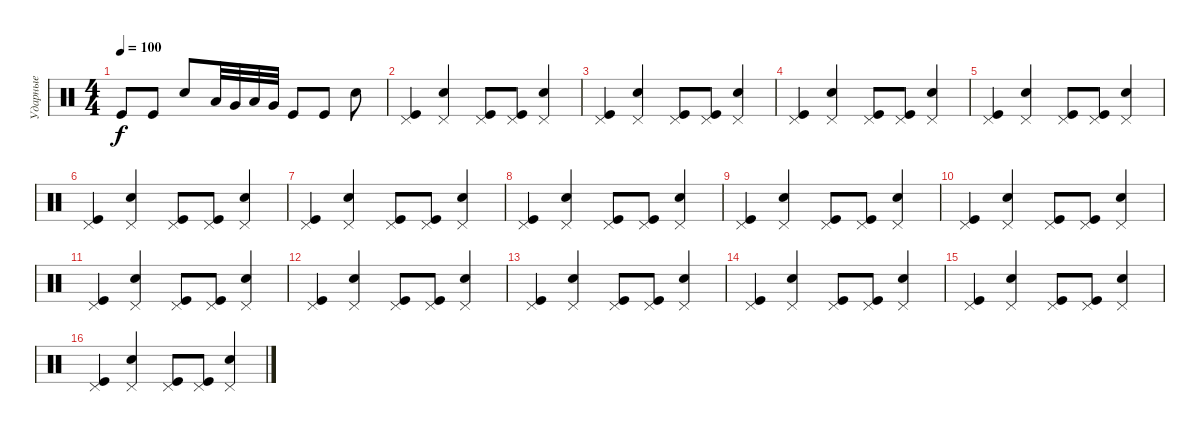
\track ("Ударные" "Ударные") {instrument percussion}
\staff {score}
\articulation defaults
\ts (4 4)
\tempo 100
\clef neutral
\ks c "Kick (hit)".8{dy f} "Kick (hit)".8 "Snare (hit) 2".8 "Low Tom (hit)".32 "Very Low Tom (hit)".32 "Low Tom (hit)".32 "Very Low Tom (hit)".32 "Kick (hit)".8 "Kick (hit)".8 "Snare (hit) 2".8
|
("Pedal Hi-Hat (hit)" "Kick (hit)").4 ("Pedal Hi-Hat (hit)" "Snare (hit) 2").4 ("Pedal Hi-Hat (hit)" "Kick (hit)").8 ("Pedal Hi-Hat (hit)" "Kick (hit)").8 ("Pedal Hi-Hat (hit)" "Snare (hit) 2").4 |
("Pedal Hi-Hat (hit)" "Kick (hit)").4 ("Pedal Hi-Hat (hit)" "Snare (hit) 2").4 ("Pedal Hi-Hat (hit)" "Kick (hit)").8 ("Pedal Hi-Hat (hit)" "Kick (hit)").8 ("Pedal Hi-Hat (hit)" "Snare (hit) 2").4 |
("Pedal Hi-Hat (hit)" "Kick (hit)").4 ("Pedal Hi-Hat (hit)" "Snare (hit) 2").4 ("Pedal Hi-Hat (hit)" "Kick (hit)").8 ("Pedal Hi-Hat (hit)" "Kick (hit)").8 ("Pedal Hi-Hat (hit)" "Snare (hit) 2").4 |
("Pedal Hi-Hat (hit)" "Kick (hit)").4 ("Pedal Hi-Hat (hit)" "Snare (hit) 2").4 ("Pedal Hi-Hat (hit)" "Kick (hit)").8 ("Pedal Hi-Hat (hit)" "Kick (hit)").8 ("Pedal Hi-Hat (hit)" "Snare (hit) 2").4 |
("Pedal Hi-Hat (hit)" "Kick (hit)").4 ("Pedal Hi-Hat (hit)" "Snare (hit) 2").4 ("Pedal Hi-Hat (hit)" "Kick (hit)").8 ("Pedal Hi-Hat (hit)" "Kick (hit)").8 ("Pedal Hi-Hat (hit)" "Snare (hit) 2").4 |
("Pedal Hi-Hat (hit)" "Kick (hit)").4 ("Pedal Hi-Hat (hit)" "Snare (hit) 2").4 ("Pedal Hi-Hat (hit)" "Kick (hit)").8 ("Pedal Hi-Hat (hit)" "Kick (hit)").8 ("Pedal Hi-Hat (hit)" "Snare (hit) 2").4 |
("Pedal Hi-Hat (hit)" "Kick (hit)").4 ("Pedal Hi-Hat (hit)" "Snare (hit) 2").4 ("Pedal Hi-Hat (hit)" "Kick (hit)").8 ("Pedal Hi-Hat (hit)" "Kick (hit)").8 ("Pedal Hi-Hat (hit)" "Snare (hit) 2").4 |
("Pedal Hi-Hat (hit)" "Kick (hit)").4 ("Pedal Hi-Hat (hit)" "Snare (hit) 2").4 ("Pedal Hi-Hat (hit)" "Kick (hit)").8 ("Pedal Hi-Hat (hit)" "Kick (hit)").8 ("Pedal Hi-Hat (hit)" "Snare (hit) 2").4 |
("Pedal Hi-Hat (hit)" "Kick (hit)").4 ("Pedal Hi-Hat (hit)" "Snare (hit) 2").4 ("Pedal Hi-Hat (hit)" "Kick (hit)").8 ("Pedal Hi-Hat (hit)" "Kick (hit)").8 ("Pedal Hi-Hat (hit)" "Snare (hit) 2").4 |
("Pedal Hi-Hat (hit)" "Kick (hit)").4 ("Pedal Hi-Hat (hit)" "Snare (hit) 2").4 ("Pedal Hi-Hat (hit)" "Kick (hit)").8 ("Pedal Hi-Hat (hit)" "Kick (hit)").8 ("Pedal Hi-Hat (hit)" "Snare (hit) 2").4 |
("Pedal Hi-Hat (hit)" "Kick (hit)").4 ("Pedal Hi-Hat (hit)" "Snare (hit) 2").4 ("Pedal Hi-Hat (hit)" "Kick (hit)").8 ("Pedal Hi-Hat (hit)" "Kick (hit)").8 ("Pedal Hi-Hat (hit)" "Snare (hit) 2").4 |
("Pedal Hi-Hat (hit)" "Kick (hit)").4 ("Pedal Hi-Hat (hit)" "Snare (hit) 2").4 ("Pedal Hi-Hat (hit)" "Kick (hit)").8 ("Pedal Hi-Hat (hit)" "Kick (hit)").8 ("Pedal Hi-Hat (hit)" "Snare (hit) 2").4 |
("Pedal Hi-Hat (hit)" "Kick (hit)").4 ("Pedal Hi-Hat (hit)" "Snare (hit) 2").4 ("Pedal Hi-Hat (hit)" "Kick (hit)").8 ("Pedal Hi-Hat (hit)" "Kick (hit)").8 ("Pedal Hi-Hat (hit)" "Snare (hit) 2").4 |
("Pedal Hi-Hat (hit)" "Kick (hit)").4 ("Pedal Hi-Hat (hit)" "Snare (hit) 2").4 ("Pedal Hi-Hat (hit)" "Kick (hit)").8 ("Pedal Hi-Hat (hit)" "Kick (hit)").8 ("Pedal Hi-Hat (hit)" "Snare (hit) 2").4 |
("Pedal Hi-Hat (hit)" "Kick (hit)").4 ("Pedal Hi-Hat (hit)" "Snare (hit) 2").4 ("Pedal Hi-Hat (hit)" "Kick (hit)").8 ("Pedal Hi-Hat (hit)" "Kick (hit)").8 ("Pedal Hi-Hat (hit)" "Snare (hit) 2").4
